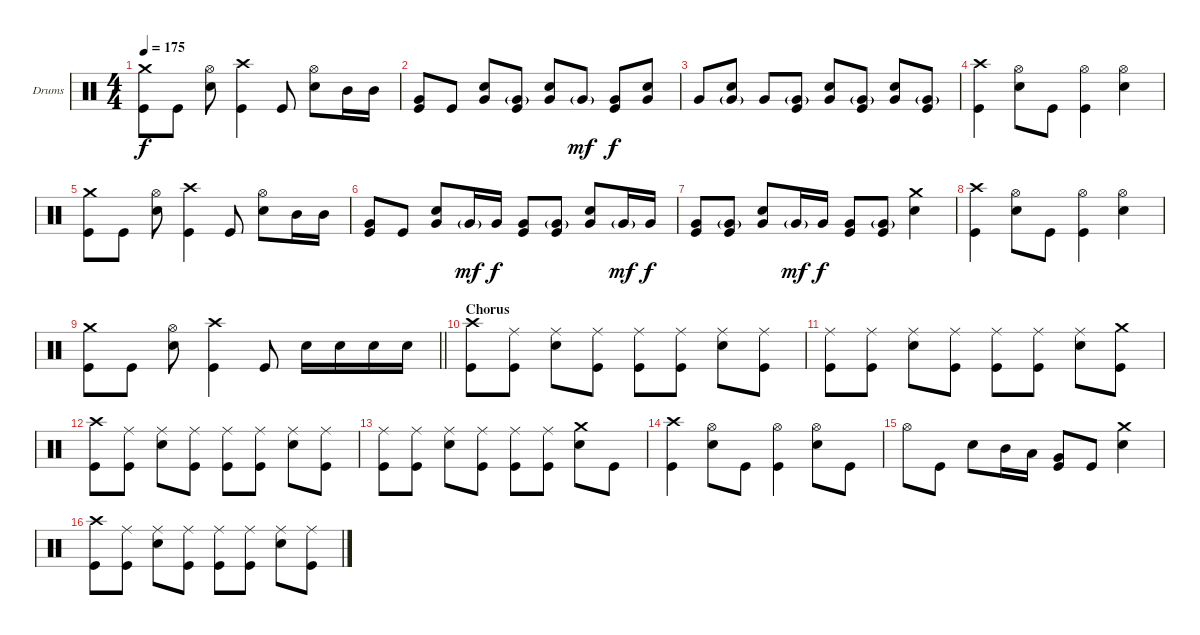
\bracketExtendMode groupsimilarinstruments
\firstSystemTrackNameOrientation horizontal
\otherSystemsTrackNameOrientation horizontal
\track ("Drumkit" "Drums") {instrument percussion}
\staff {score}
\articulation defaults
\ts (4 4)
\tempo 175
\clef neutral
\ks c
("Crash medium (hit)" "Kick (hit)").8{dy f} "Kick (hit)".8 ("Hi-Hat (open)" "Snare (hit) 2").8 ("Crash high (hit)" "Kick (hit)").4 "Kick (hit)".8 ("Hi-Hat (open)" "Snare (hit) 2").8 "Mid Tom (hit)".16 "Mid Tom (hit)".16 |
("Very Low Tom (hit)" "Kick (hit)").8 "Kick (hit)".8 ("Very Low Tom (hit)" "Snare (hit) 2").8 ("Very Low Tom (hit)"{g} "Kick (hit)").8 ("Very Low Tom (hit)" "Snare (hit) 2").8 "Very Low Tom (hit)"{g}.8{dy mf} ("Very Low Tom (hit)" "Kick (hit)").8{dy f} ("Very Low Tom (hit)" "Snare (hit) 2").8 |
"Very Low Tom (hit)".8 ("Very Low Tom (hit)"{g} "Snare (hit) 2").8 "Very Low Tom (hit)".8 ("Very Low Tom (hit)"{g} "Kick (hit)").8 ("Very Low Tom (hit)" "Snare (hit) 2").8 ("Very Low Tom (hit)"{g} "Kick (hit)").8 ("Very Low Tom (hit)" "Snare (hit) 2").8 ("Very Low Tom (hit)"{g} "Kick (hit)").8 |
("Crash high (hit)" "Kick (hit)").4 ("Hi-Hat (open)" "Snare (hit) 2").8 "Kick (hit)".8 ("Hi-Hat (open)" "Kick (hit)").4 ("Hi-Hat (open)" "Snare (hit) 2").4 |
("Crash medium (hit)" "Kick (hit)").8 "Kick (hit)".8 ("Hi-Hat (open)" "Snare (hit) 2").8 ("Crash high (hit)" "Kick (hit)").4 "Kick (hit)".8 ("Hi-Hat (open)" "Snare (hit) 2").8 "Mid Tom (hit)".16 "Mid Tom (hit)".16 |
("Very Low Tom (hit)" "Kick (hit)").8 "Kick (hit)".8 ("Very Low Tom (hit)" "Snare (hit) 2").8 "Very Low Tom (hit)"{g}.16{dy mf} "Very Low Tom (hit)".16{dy f} ("Very Low Tom (hit)" "Kick (hit)").8 ("Very Low Tom (hit)"{g} "Kick (hit)").8 ("Very Low Tom (hit)" "Snare (hit) 2").8 "Very Low Tom (hit)"{g}.16{dy mf} "Very Low Tom (hit)".16{dy f} |
("Very Low Tom (hit)" "Kick (hit)").8 ("Very Low Tom (hit)"{g} "Kick (hit)").8 ("Very Low Tom (hit)" "Snare (hit) 2").8 "Very Low Tom (hit)"{g}.16{dy mf} "Very Low Tom (hit)".16{dy f} ("Very Low Tom (hit)" "Kick (hit)").8 ("Very Low Tom (hit)"{g} "Kick (hit)").8 ("Crash medium (hit)" "Snare (hit) 2").4 |
("Crash high (hit)" "Kick (hit)").4 ("Hi-Hat (open)" "Snare (hit) 2").8 "Kick (hit)".8 ("Hi-Hat (open)" "Kick (hit)").4 ("Hi-Hat (open)" "Snare (hit) 2").4 |
\barLineRight lightlight
("Crash medium (hit)" "Kick (hit)").8 "Kick (hit)".8 ("Hi-Hat (open)" "Snare (hit) 2").8 ("Crash high (hit)" "Kick (hit)").4 "Kick (hit)".8 "Snare (hit) 2".16 "Snare (hit) 2".16 "Snare (hit) 2".16 "Snare (hit) 2".16 |
\section ("" "Chorus")
("Crash high (hit)" "Kick (hit)").8 ("Ride (middle)" "Kick (hit)").8 ("Ride (middle)" "Snare (hit) 2").8 ("Ride (middle)" "Kick (hit)").8 ("Ride (middle)" "Kick (hit)").8 ("Ride (middle)" "Kick (hit)").8 ("Ride (middle)" "Snare (hit) 2").8 ("Ride (middle)" "Kick (hit)").8 |
("Ride (middle)" "Kick (hit)").8 ("Ride (middle)" "Kick (hit)").8 ("Ride (middle)" "Snare (hit) 2").8 ("Ride (middle)" "Kick (hit)").8 ("Ride (middle)" "Kick (hit)").8 ("Ride (middle)" "Kick (hit)").8 ("Ride (middle)" "Snare (hit) 2").8 ("Crash medium (hit)" "Kick (hit)").8 |
("Crash high (hit)" "Kick (hit)").8 ("Ride (middle)" "Kick (hit)").8 ("Ride (middle)" "Snare (hit) 2").8 ("Ride (middle)" "Kick (hit)").8 ("Ride (middle)" "Kick (hit)").8 ("Ride (middle)" "Kick (hit)").8 ("Ride (middle)" "Snare (hit) 2").8 ("Ride (middle)" "Kick (hit)").8 |
("Ride (middle)" "Kick (hit)").8 ("Ride (middle)" "Kick (hit)").8 ("Ride (middle)" "Snare (hit) 2").8 ("Ride (middle)" "Kick (hit)").8 ("Ride (middle)" "Kick (hit)").8 ("Ride (middle)" "Kick (hit)").8 ("Crash medium (hit)" "Snare (hit) 2").8 "Kick (hit)".8 |
("Crash high (hit)" "Kick (hit)").4 ("Hi-Hat (open)" "Snare (hit) 2").8 "Kick (hit)".8 ("Hi-Hat (open)" "Kick (hit)").4 ("Hi-Hat (open)" "Snare (hit) 2").8 "Kick (hit)".8 |
"Hi-Hat (open)".8 "Kick (hit)".8 "Snare (hit) 2".8 "Mid Tom (hit)".16 "Low Tom (hit)".16 ("Very Low Tom (hit)" "Kick (hit)").8 "Kick (hit)".8 ("Crash medium (hit)" "Snare (hit) 2").4 |
("Crash high (hit)" "Kick (hit)").8 ("Ride (middle)" "Kick (hit)").8 ("Ride (middle)" "Snare (hit) 2").8 ("Ride (middle)" "Kick (hit)").8 ("Ride (middle)" "Kick (hit)").8 ("Ride (middle)" "Kick (hit)").8 ("Ride (middle)" "Snare (hit) 2").8 ("Ride (middle)" "Kick (hit)").8
